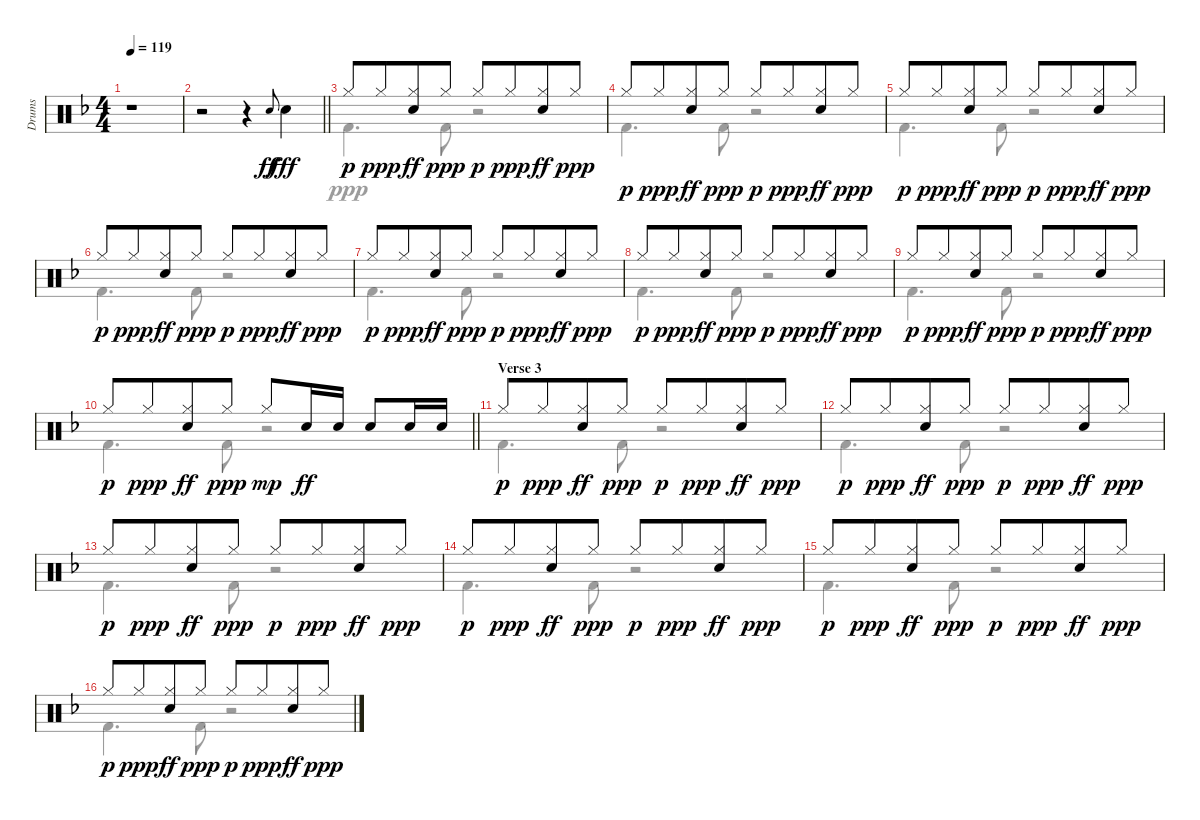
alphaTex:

\track ("Drums" "Drums") {instrument percussion}
\staff {score}
\articulation defaults
\voice
\ts (4 4)
\tempo 119
\clef neutral
\ks f
r.1{dy mp} |
\barLineRight lightlight
r.2 r.4 "Electric Snare (hit)".8{gr onbeat dy ff} "Electric Snare (hit)".4{dy fff} |
\section ("" "")
"Hi-Hat (closed)".8{dy p} "Hi-Hat (closed)".8{dy ppp beam merge} ("Hi-Hat (closed)" "Electric Snare (hit)").8{dy ff} "Hi-Hat (closed)".8{dy ppp} "Hi-Hat (closed)".8{dy p} "Hi-Hat (closed)".8{dy ppp beam merge} ("Hi-Hat (closed)" "Electric Snare (hit)").8{dy ff} "Hi-Hat (closed)".8{dy ppp} |
"Hi-Hat (closed)".8{dy p} "Hi-Hat (closed)".8{dy ppp beam merge} ("Hi-Hat (closed)" "Electric Snare (hit)").8{dy ff} "Hi-Hat (closed)".8{dy ppp} "Hi-Hat (closed)".8{dy p} "Hi-Hat (closed)".8{dy ppp beam merge} ("Hi-Hat (closed)" "Electric Snare (hit)").8{dy ff} "Hi-Hat (closed)".8{dy ppp} |
"Hi-Hat (closed)".8{dy p} "Hi-Hat (closed)".8{dy ppp beam merge} ("Hi-Hat (closed)" "Electric Snare (hit)").8{dy ff} "Hi-Hat (closed)".8{dy ppp} "Hi-Hat (closed)".8{dy p} "Hi-Hat (closed)".8{dy ppp beam merge} ("Hi-Hat (closed)" "Electric Snare (hit)").8{dy ff} "Hi-Hat (closed)".8{dy ppp} |
"Hi-Hat (closed)".8{dy p} "Hi-Hat (closed)".8{dy ppp beam merge} ("Hi-Hat (closed)" "Electric Snare (hit)").8{dy ff} "Hi-Hat (closed)".8{dy ppp} "Hi-Hat (closed)".8{dy p} "Hi-Hat (closed)".8{dy ppp beam merge} ("Hi-Hat (closed)" "Electric Snare (hit)").8{dy ff} "Hi-Hat (closed)".8{dy ppp} |
"Hi-Hat (closed)".8{dy p} "Hi-Hat (closed)".8{dy ppp beam merge} ("Hi-Hat (closed)" "Electric Snare (hit)").8{dy ff} "Hi-Hat (closed)".8{dy ppp} "Hi-Hat (closed)".8{dy p} "Hi-Hat (closed)".8{dy ppp beam merge} ("Hi-Hat (closed)" "Electric Snare (hit)").8{dy ff} "Hi-Hat (closed)".8{dy ppp} |
"Hi-Hat (closed)".8{dy p} "Hi-Hat (closed)".8{dy ppp beam merge} ("Hi-Hat (closed)" "Electric Snare (hit)").8{dy ff} "Hi-Hat (closed)".8{dy ppp} "Hi-Hat (closed)".8{dy p} "Hi-Hat (closed)".8{dy ppp beam merge} ("Hi-Hat (closed)" "Electric Snare (hit)").8{dy ff} "Hi-Hat (closed)".8{dy ppp} |
"Hi-Hat (closed)".8{dy p} "Hi-Hat (closed)".8{dy ppp beam merge} ("Hi-Hat (closed)" "Electric Snare (hit)").8{dy ff} "Hi-Hat (closed)".8{dy ppp} "Hi-Hat (closed)".8{dy p} "Hi-Hat (closed)".8{dy ppp beam merge} ("Hi-Hat (closed)" "Electric Snare (hit)").8{dy ff} "Hi-Hat (closed)".8{dy ppp} |
\barLineRight lightlight "Hi-Hat (closed)".8{dy p} "Hi-Hat (closed)".8{dy ppp beam merge}
("Hi-Hat (closed)" "Electric Snare (hit)").8{dy ff} "Hi-Hat (closed)".8{dy ppp} "Hi-Hat (closed)".8{dy mp} "Electric Snare (hit)".16{dy ff} "Electric Snare (hit)".16 "Electric Snare (hit)".8 "Electric Snare (hit)".16 "Electric Snare (hit)".16 |
\section ("" "Verse 3")
"Hi-Hat (closed)".8{dy p} "Hi-Hat (closed)".8{dy ppp beam merge} ("Hi-Hat (closed)" "Electric Snare (hit)").8{dy ff} "Hi-Hat (closed)".8{dy ppp} "Hi-Hat (closed)".8{dy p} "Hi-Hat (closed)".8{dy ppp beam merge} ("Hi-Hat (closed)" "Electric Snare (hit)").8{dy ff} "Hi-Hat (closed)".8{dy ppp} |
"Hi-Hat (closed)".8{dy p} "Hi-Hat (closed)".8{dy ppp beam merge} ("Hi-Hat (closed)" "Electric Snare (hit)").8{dy ff} "Hi-Hat (closed)".8{dy ppp} "Hi-Hat (closed)".8{dy p} "Hi-Hat (closed)".8{dy ppp beam merge} ("Hi-Hat (closed)" "Electric Snare (hit)").8{dy ff} "Hi-Hat (closed)".8{dy ppp} |
"Hi-Hat (closed)".8{dy p} "Hi-Hat (closed)".8{dy ppp beam merge} ("Hi-Hat (closed)" "Electric Snare (hit)").8{dy ff} "Hi-Hat (closed)".8{dy ppp} "Hi-Hat (closed)".8{dy p} "Hi-Hat (closed)".8{dy ppp beam merge} ("Hi-Hat (closed)" "Electric Snare (hit)").8{dy ff} "Hi-Hat (closed)".8{dy ppp} |
"Hi-Hat (closed)".8{dy p} "Hi-Hat (closed)".8{dy ppp beam merge} ("Hi-Hat (closed)" "Electric Snare (hit)").8{dy ff} "Hi-Hat (closed)".8{dy ppp} "Hi-Hat (closed)".8{dy p} "Hi-Hat (closed)".8{dy ppp beam merge} ("Hi-Hat (closed)" "Electric Snare (hit)").8{dy ff} "Hi-Hat (closed)".8{dy ppp} |
"Hi-Hat (closed)".8{dy p} "Hi-Hat (closed)".8{dy ppp beam merge} ("Hi-Hat (closed)" "Electric Snare (hit)").8{dy ff} "Hi-Hat (closed)".8{dy ppp} "Hi-Hat (closed)".8{dy p} "Hi-Hat (closed)".8{dy ppp beam merge} ("Hi-Hat (closed)" "Electric Snare (hit)").8{dy ff} "Hi-Hat (closed)".8{dy ppp} |
"Hi-Hat (closed)".8{dy p} "Hi-Hat (closed)".8{dy ppp beam merge} ("Hi-Hat (closed)" "Electric Snare (hit)").8{dy ff} "Hi-Hat (closed)".8{dy ppp} "Hi-Hat (closed)".8{dy p} "Hi-Hat (closed)".8{dy ppp beam merge} ("Hi-Hat (closed)" "Electric Snare (hit)").8{dy ff} "Hi-Hat (closed)".8{dy ppp}
\voice
\clef neutral
\ottava regular
\simile none
\ks f
|
\barLineRight lightlight
|
"Kick (hit) 2".4{d} "Kick (hit) 2".8 r.2 |
"Kick (hit) 2".4{d} "Kick (hit) 2".8 r.2 |
"Kick (hit) 2".4{d} "Kick (hit) 2".8 r.2 |
"Kick (hit) 2".4{d} "Kick (hit) 2".8 r.2 |
"Kick (hit) 2".4{d} "Kick (hit) 2".8 r.2 |
"Kick (hit) 2".4{d} "Kick (hit) 2".8 r.2 |
"Kick (hit) 2".4{d} "Kick (hit) 2".8 r.2 |
\barLineRight lightlight "Kick (hit) 2".4{d} "Kick (hit) 2".8
r.2 |
"Kick (hit) 2".4{d} "Kick (hit) 2".8 r.2 |
"Kick (hit) 2".4{d} "Kick (hit) 2".8 r.2 |
"Kick (hit) 2".4{d} "Kick (hit) 2".8 r.2 |
"Kick (hit) 2".4{d} "Kick (hit) 2".8 r.2 |
"Kick (hit) 2".4{d} "Kick (hit) 2".8 r.2 |
"Kick (hit) 2".4{d} "Kick (hit) 2".8 r.2
